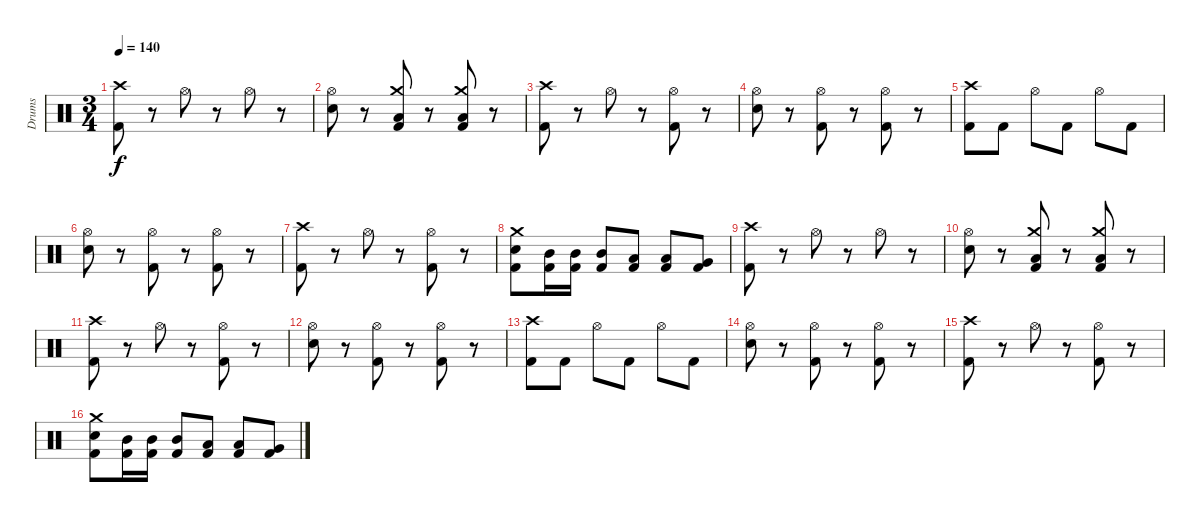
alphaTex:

\track ("Drums" "Drums") {instrument percussion}
\staff {score}
\articulation defaults
\ts (3 4)
\section ("" "")
\tempo 140
\clef neutral
\ks c
("Crash high (hit)" "Kick (hit) 2").8{dy f} r.8 "Hi-Hat (open)".8 r.8 "Hi-Hat (open)".8 r.8 |
("Hi-Hat (open)" "Snare (hit) 2").8 r.8 ("Crash medium (hit)" "Low Floor Tom (hit)" "Kick (hit) 2").8 r.8 ("Crash medium (hit)" "Low Floor Tom (hit)" "Kick (hit) 2").8 r.8 |
("Crash high (hit)" "Kick (hit) 2").8 r.8 "Hi-Hat (open)".8 r.8 ("Hi-Hat (open)" "Kick (hit) 2").8 r.8 |
("Hi-Hat (open)" "Snare (hit) 2").8 r.8 ("Hi-Hat (open)" "Kick (hit) 2").8 r.8 ("Hi-Hat (open)" "Kick (hit) 2").8 r.8 |
("Crash high (hit)" "Kick (hit) 2").8 "Kick (hit) 2".8 "Hi-Hat (open)".8 "Kick (hit) 2".8 "Hi-Hat (open)".8 "Kick (hit) 2".8 |
("Hi-Hat (open)" "Snare (hit) 2").8 r.8 ("Hi-Hat (open)" "Kick (hit) 2").8 r.8 ("Hi-Hat (open)" "Kick (hit) 2").8 r.8 |
("Crash high (hit)" "Kick (hit) 2").8 r.8 "Hi-Hat (open)".8 r.8 ("Hi-Hat (open)" "Kick (hit) 2").8 r.8 |
("Crash medium (hit)" "Snare (hit) 2" "Kick (hit) 2").8 ("Mid Tom (hit)" "Kick (hit) 2").16 ("Mid Tom (hit)" "Kick (hit) 2").16 ("Mid Tom (hit)" "Kick (hit) 2").8 ("Low Tom (hit)" "Kick (hit) 2").8 ("Low Tom (hit)" "Kick (hit) 2").8 ("Very Low Tom (hit)" "Kick (hit) 2").8 |
\section ("" "")
("Crash high (hit)" "Kick (hit) 2").8 r.8 "Hi-Hat (open)".8 r.8 "Hi-Hat (open)".8 r.8 |
("Hi-Hat (open)" "Snare (hit) 2").8 r.8 ("Crash medium (hit)" "Low Floor Tom (hit)" "Kick (hit) 2").8 r.8 ("Crash medium (hit)" "Low Floor Tom (hit)" "Kick (hit) 2").8 r.8 |
("Crash high (hit)" "Kick (hit) 2").8 r.8 "Hi-Hat (open)".8 r.8 ("Hi-Hat (open)" "Kick (hit) 2").8 r.8 |
("Hi-Hat (open)" "Snare (hit) 2").8 r.8 ("Hi-Hat (open)" "Kick (hit) 2").8 r.8 ("Hi-Hat (open)" "Kick (hit) 2").8 r.8 |
("Crash high (hit)" "Kick (hit) 2").8 "Kick (hit) 2".8 "Hi-Hat (open)".8 "Kick (hit) 2".8 "Hi-Hat (open)".8 "Kick (hit) 2".8 |
("Hi-Hat (open)" "Snare (hit) 2").8 r.8 ("Hi-Hat (open)" "Kick (hit) 2").8 r.8 ("Hi-Hat (open)" "Kick (hit) 2").8 r.8 |
("Crash high (hit)" "Kick (hit) 2").8 r.8 "Hi-Hat (open)".8 r.8 ("Hi-Hat (open)" "Kick (hit) 2").8 r.8 |
("Crash medium (hit)" "Snare (hit) 2" "Kick (hit) 2").8 ("Mid Tom (hit)" "Kick (hit) 2").16 ("Mid Tom (hit)" "Kick (hit) 2").16 ("Mid Tom (hit)" "Kick (hit) 2").8 ("Low Tom (hit)" "Kick (hit) 2").8 ("Low Tom (hit)" "Kick (hit) 2").8 ("Very Low Tom (hit)" "Kick (hit) 2").8
